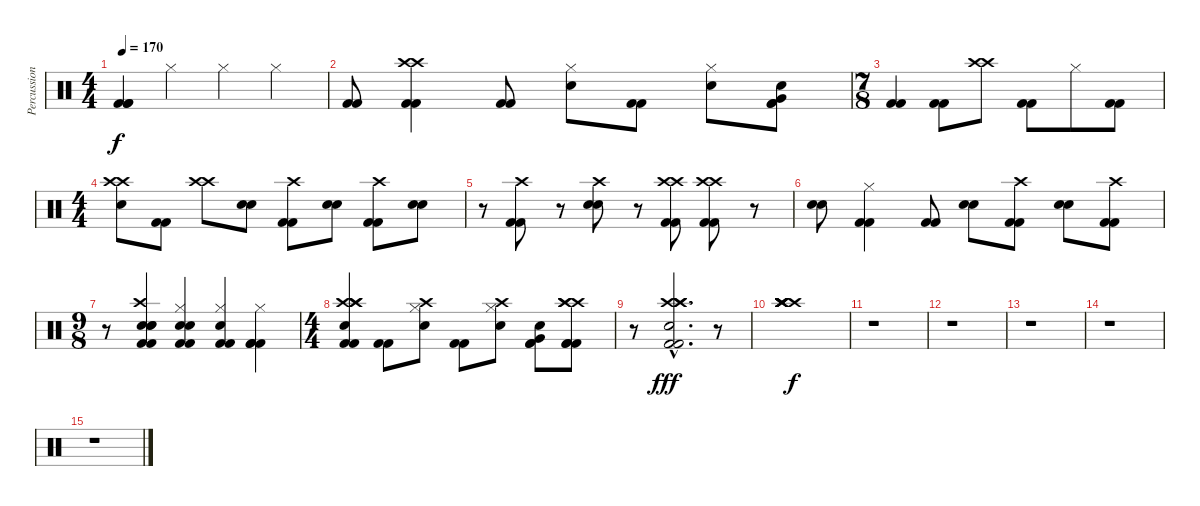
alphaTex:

\track ("Percussion" "Percussion") {instrument percussion}
\staff {score}
\articulation defaults
\ts (4 4)
\tempo 170
\clef neutral
\ks c
("Kick (hit) 2" "Kick (hit) 2" "Kick (hit) 2").4{dy f} "Hi-Hat (closed)".4 "Hi-Hat (closed)".4 "Hi-Hat (closed)".4 |
("Kick (hit) 2" "Kick (hit) 2").8 ("Crash high (hit)" "Crash high (hit)" "Kick (hit) 2" "Kick (hit) 2").4 ("Kick (hit) 2" "Kick (hit) 2").8 ("Hi-Hat (closed)" "Snare (hit) 2").8 ("Kick (hit) 2" "Kick (hit) 2").8 ("Hi-Hat (closed)" "Snare (hit) 2").8 ("Snare (hit) 2" "Kick (hit) 2" "Kick (hit) 2" "Very Low Tom (hit)").8 |
\ts (7 8)
("Kick (hit) 2" "Kick (hit) 2").4 ("Kick (hit) 2" "Kick (hit) 2").8 ("Crash high (hit)" "Crash high (hit)").8 ("Kick (hit) 2" "Kick (hit) 2").8 "Hi-Hat (closed)".8 ("Kick (hit) 2" "Kick (hit) 2").8 |
\ts (4 4)
("Crash high (hit)" "Crash high (hit)" "Snare (hit) 2").8 ("Kick (hit) 2" "Kick (hit) 2").8 ("Crash high (hit)" "Crash high (hit)").8 ("Snare (hit) 2" "Snare (hit) 2").8 ("Crash high (hit)" "Kick (hit) 2" "Kick (hit) 2").8 ("Snare (hit) 2" "Snare (hit) 2").8 ("Crash high (hit)" "Kick (hit) 2" "Kick (hit) 2").8 ("Snare (hit) 2" "Snare (hit) 2").8 |
r.8 ("Crash high (hit)" "Kick (hit) 2" "Kick (hit) 2").8 r.8 ("Crash high (hit)" "Snare (hit) 2" "Snare (hit) 2").8 r.8 ("Crash high (hit)" "Crash high (hit)" "Kick (hit) 2" "Kick (hit) 2").8 ("Crash high (hit)" "Crash high (hit)" "Kick (hit) 2" "Kick (hit) 2").8 r.8 |
("Snare (hit) 2" "Snare (hit) 2").8 ("Hi-Hat (closed)" "Kick (hit) 2" "Kick (hit) 2").4 ("Kick (hit) 2" "Kick (hit) 2").8 ("Snare (hit) 2" "Snare (hit) 2").8 ("Crash high (hit)" "Kick (hit) 2" "Kick (hit) 2").8 ("Snare (hit) 2" "Snare (hit) 2").8 ("Crash high (hit)" "Kick (hit) 2" "Kick (hit) 2").8 |
\ts (9 8)
r.8 ("Crash high (hit)" "Snare (hit) 2" "Snare (hit) 2" "Snare (hit) 2" "Kick (hit) 2" "Kick (hit) 2").4 ("Hi-Hat (closed)" "Snare (hit) 2" "Snare (hit) 2" "Kick (hit) 2" "Kick (hit) 2").4 ("Hi-Hat (closed)" "Snare (hit) 2" "Kick (hit) 2" "Kick (hit) 2").4 ("Kick (hit) 2" "Hi-Hat (closed)" "Kick (hit) 2" "Kick (hit) 2").4 |
\ts (4 4)
("Crash high (hit)" "Crash high (hit)" "Crash high (hit)" "Snare (hit) 2" "Kick (hit) 2" "Kick (hit) 2").4 ("Kick (hit) 2" "Kick (hit) 2").8 ("Crash high (hit)" "Hi-Hat (closed)" "Snare (hit) 2").8 ("Kick (hit) 2" "Kick (hit) 2").8 ("Crash high (hit)" "Hi-Hat (closed)" "Snare (hit) 2").8 ("Snare (hit) 2" "Kick (hit) 2" "Kick (hit) 2" "Very Low Tom (hit)").8 ("Crash high (hit)" "Crash high (hit)" "Crash high (hit)" "Kick (hit) 2" "Kick (hit) 2" "Kick (hit) 2").8 |
r.8 ("Crash high (hit)"{hac} "Crash high (hit)"{hac} "Crash high (hit)"{hac} "Snare (hit) 2"{hac} "Kick (hit) 2"{hac} "Kick (hit) 2"{hac}).2{d dy fff} r.8 |
("Crash high (hit)" "Crash high (hit)" "Crash high (hit)" "Crash high (hit)" "Crash high (hit)" "Crash high (hit)").1{bd 240 dy f} |
r.1 |
r.1 |
r.1 |
r.1 |
r.1
